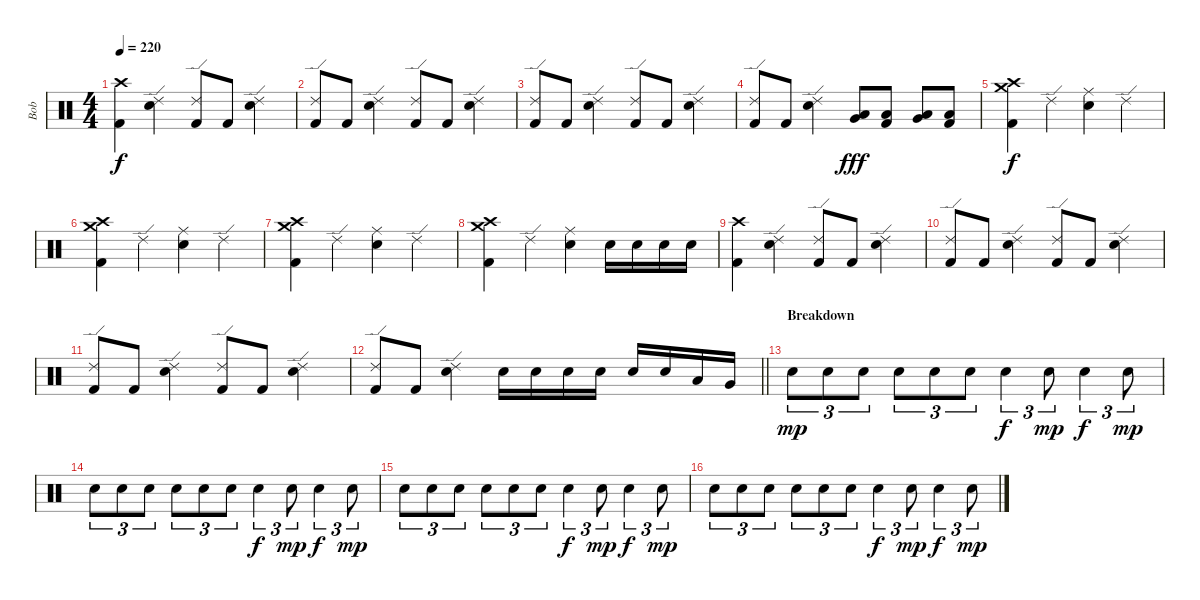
\track ("Bob" "Bob") {instrument percussion}
\staff {score}
\articulation defaults
\ts (4 4)
\tempo 220
\clef neutral
\ks c
("Crash high (hit)" "Kick (hit) 2").4{dy f} ("Ride (edge) 2" "Electric Snare (hit)").4 ("Ride (edge) 2" "Kick (hit) 2").8 "Kick (hit) 2".8 ("Ride (edge) 2" "Electric Snare (hit)").4 |
("Ride (edge) 2" "Kick (hit) 2").8 "Kick (hit) 2".8 ("Ride (edge) 2" "Electric Snare (hit)").4 ("Ride (edge) 2" "Kick (hit) 2").8 "Kick (hit) 2".8 ("Ride (edge) 2" "Electric Snare (hit)").4 |
("Ride (edge) 2" "Kick (hit) 2").8 "Kick (hit) 2".8 ("Ride (edge) 2" "Electric Snare (hit)").4 ("Ride (edge) 2" "Kick (hit) 2").8 "Kick (hit) 2".8 ("Ride (edge) 2" "Electric Snare (hit)").4 |
("Ride (edge) 2" "Kick (hit) 2").8 "Kick (hit) 2".8 ("Ride (edge) 2" "Electric Snare (hit)").4 ("Low Tom (hit)" "Very Low Tom (hit)").8{dy fff} ("Low Floor Tom (hit)" "Kick (hit) 2").8 ("Low Tom (hit)" "Very Low Tom (hit)").8 ("Low Floor Tom (hit)" "Kick (hit) 2").8 |
("Crash high (hit)" "Crash medium (hit)" "Kick (hit) 2").4{dy f} "Ride (edge) 2".4 ("Ride (middle)" "Electric Snare (hit)").4 "Ride (edge) 2".4 |
("Crash high (hit)" "Crash medium (hit)" "Kick (hit) 2").4 "Ride (edge) 2".4 ("Ride (middle)" "Electric Snare (hit)").4 "Ride (edge) 2".4 |
("Crash high (hit)" "Crash medium (hit)" "Kick (hit) 2").4 "Ride (edge) 2".4 ("Ride (middle)" "Electric Snare (hit)").4 "Ride (edge) 2".4 |
("Crash high (hit)" "Crash medium (hit)" "Kick (hit) 2").4 "Ride (edge) 2".4 ("Ride (middle)" "Electric Snare (hit)").4 "Electric Snare (hit)".16 "Electric Snare (hit)".16 "Electric Snare (hit)".16 "Electric Snare (hit)".16 |
("Crash high (hit)" "Kick (hit) 2").4 ("Ride (edge) 2" "Electric Snare (hit)").4 ("Ride (edge) 2" "Kick (hit) 2").8 "Kick (hit) 2".8 ("Ride (edge) 2" "Electric Snare (hit)").4 |
("Ride (edge) 2" "Kick (hit) 2").8 "Kick (hit) 2".8 ("Ride (edge) 2" "Electric Snare (hit)").4 ("Ride (edge) 2" "Kick (hit) 2").8 "Kick (hit) 2".8 ("Ride (edge) 2" "Electric Snare (hit)").4 |
("Ride (edge) 2" "Kick (hit) 2").8 "Kick (hit) 2".8 ("Ride (edge) 2" "Electric Snare (hit)").4 ("Ride (edge) 2" "Kick (hit) 2").8 "Kick (hit) 2".8 ("Ride (edge) 2" "Electric Snare (hit)").4 |
\barLineRight lightlight
("Ride (edge) 2" "Kick (hit) 2").8 "Kick (hit) 2".8 ("Ride (edge) 2" "Electric Snare (hit)").4 "Snare (hit) 2".16 "Snare (hit) 2".16 "Snare (hit) 2".16 "Snare (hit) 2".16 "Snare (hit) 2".16 "Snare (hit) 2".16 "Low Floor Tom (hit)".16 "Very Low Tom (hit)".16 |
\section ("" "Breakdown")
"Snare (hit) 2".8{tu (3 2) dy mp} "Snare (hit) 2".8{tu (3 2)} "Snare (hit) 2".8{tu (3 2)} "Snare (hit) 2".8{tu (3 2)} "Snare (hit) 2".8{tu (3 2)} "Snare (hit) 2".8{tu (3 2)} "Electric Snare (hit)".4{tu (3 2) dy f} "Snare (hit) 2".8{tu (3 2) dy mp} "Electric Snare (hit)".4{tu (3 2) dy f} "Snare (hit) 2".8{tu (3 2) dy mp} |
"Snare (hit) 2".8{tu (3 2)} "Snare (hit) 2".8{tu (3 2)} "Snare (hit) 2".8{tu (3 2)} "Snare (hit) 2".8{tu (3 2)} "Snare (hit) 2".8{tu (3 2)} "Snare (hit) 2".8{tu (3 2)} "Electric Snare (hit)".4{tu (3 2) dy f} "Snare (hit) 2".8{tu (3 2) dy mp} "Electric Snare (hit)".4{tu (3 2) dy f} "Snare (hit) 2".8{tu (3 2) dy mp} |
"Snare (hit) 2".8{tu (3 2)} "Snare (hit) 2".8{tu (3 2)} "Snare (hit) 2".8{tu (3 2)} "Snare (hit) 2".8{tu (3 2)} "Snare (hit) 2".8{tu (3 2)} "Snare (hit) 2".8{tu (3 2)} "Electric Snare (hit)".4{tu (3 2) dy f} "Snare (hit) 2".8{tu (3 2) dy mp} "Electric Snare (hit)".4{tu (3 2) dy f} "Snare (hit) 2".8{tu (3 2) dy mp} |
"Snare (hit) 2".8{tu (3 2)} "Snare (hit) 2".8{tu (3 2)} "Snare (hit) 2".8{tu (3 2)} "Snare (hit) 2".8{tu (3 2)} "Snare (hit) 2".8{tu (3 2)} "Snare (hit) 2".8{tu (3 2)} "Electric Snare (hit)".4{tu (3 2) dy f} "Snare (hit) 2".8{tu (3 2) dy mp} "Electric Snare (hit)".4{tu (3 2) dy f} "Snare (hit) 2".8{tu (3 2) dy mp}
